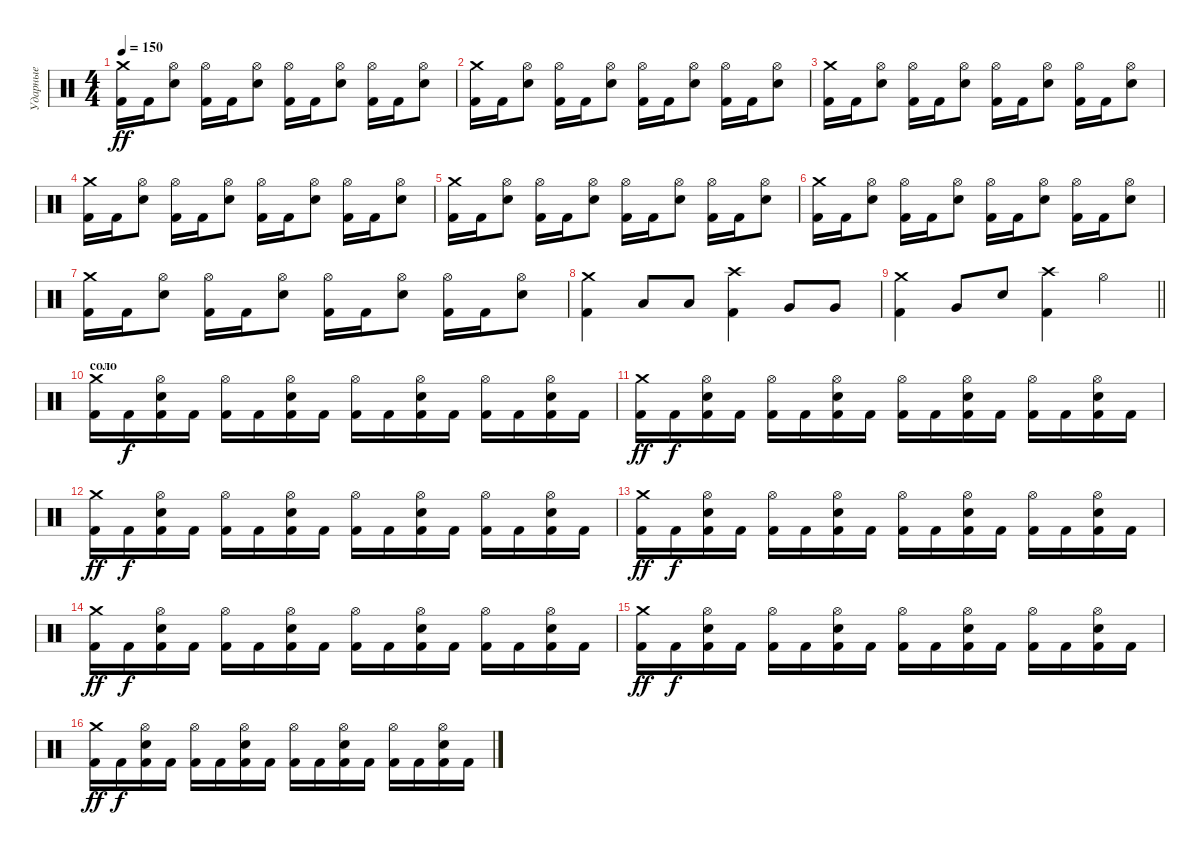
\track ("Ударные" "Ударные") {instrument percussion}
\staff {score}
\articulation defaults
\ts (4 4)
\tempo 150
\clef neutral
\ks c
("Crash medium (hit)" "Kick (hit) 2").16{dy ff} "Kick (hit) 2".16 ("Hi-Hat (open)" "Snare (hit) 2").8 ("Hi-Hat (open)" "Kick (hit) 2").16 "Kick (hit) 2".16 ("Hi-Hat (open)" "Snare (hit) 2").8 ("Hi-Hat (open)" "Kick (hit) 2").16 "Kick (hit) 2".16 ("Hi-Hat (open)" "Snare (hit) 2").8 ("Hi-Hat (open)" "Kick (hit) 2").16 "Kick (hit) 2".16 ("Hi-Hat (open)" "Snare (hit) 2").8 |
("Crash medium (hit)" "Kick (hit) 2").16 "Kick (hit) 2".16 ("Hi-Hat (open)" "Snare (hit) 2").8 ("Hi-Hat (open)" "Kick (hit) 2").16 "Kick (hit) 2".16 ("Hi-Hat (open)" "Snare (hit) 2").8 ("Hi-Hat (open)" "Kick (hit) 2").16 "Kick (hit) 2".16 ("Hi-Hat (open)" "Snare (hit) 2").8 ("Hi-Hat (open)" "Kick (hit) 2").16 "Kick (hit) 2".16 ("Hi-Hat (open)" "Snare (hit) 2").8 |
("Crash medium (hit)" "Kick (hit) 2").16 "Kick (hit) 2".16 ("Hi-Hat (open)" "Snare (hit) 2").8 ("Hi-Hat (open)" "Kick (hit) 2").16 "Kick (hit) 2".16 ("Hi-Hat (open)" "Snare (hit) 2").8 ("Hi-Hat (open)" "Kick (hit) 2").16 "Kick (hit) 2".16 ("Hi-Hat (open)" "Snare (hit) 2").8 ("Hi-Hat (open)" "Kick (hit) 2").16 "Kick (hit) 2".16 ("Hi-Hat (open)" "Snare (hit) 2").8 |
("Crash medium (hit)" "Kick (hit) 2").16 "Kick (hit) 2".16 ("Hi-Hat (open)" "Snare (hit) 2").8 ("Hi-Hat (open)" "Kick (hit) 2").16 "Kick (hit) 2".16 ("Hi-Hat (open)" "Snare (hit) 2").8 ("Hi-Hat (open)" "Kick (hit) 2").16 "Kick (hit) 2".16 ("Hi-Hat (open)" "Snare (hit) 2").8 ("Hi-Hat (open)" "Kick (hit) 2").16 "Kick (hit) 2".16 ("Hi-Hat (open)" "Snare (hit) 2").8 |
("Crash medium (hit)" "Kick (hit) 2").16 "Kick (hit) 2".16 ("Hi-Hat (open)" "Snare (hit) 2").8 ("Hi-Hat (open)" "Kick (hit) 2").16 "Kick (hit) 2".16 ("Hi-Hat (open)" "Snare (hit) 2").8 ("Hi-Hat (open)" "Kick (hit) 2").16 "Kick (hit) 2".16 ("Hi-Hat (open)" "Snare (hit) 2").8 ("Hi-Hat (open)" "Kick (hit) 2").16 "Kick (hit) 2".16 ("Hi-Hat (open)" "Snare (hit) 2").8 |
("Crash medium (hit)" "Kick (hit) 2").16 "Kick (hit) 2".16 ("Hi-Hat (open)" "Snare (hit) 2").8 ("Hi-Hat (open)" "Kick (hit) 2").16 "Kick (hit) 2".16 ("Hi-Hat (open)" "Snare (hit) 2").8 ("Hi-Hat (open)" "Kick (hit) 2").16 "Kick (hit) 2".16 ("Hi-Hat (open)" "Snare (hit) 2").8 ("Hi-Hat (open)" "Kick (hit) 2").16 "Kick (hit) 2".16 ("Hi-Hat (open)" "Snare (hit) 2").8 |
("Crash medium (hit)" "Kick (hit) 2").16 "Kick (hit) 2".16 ("Hi-Hat (open)" "Snare (hit) 2").8 ("Hi-Hat (open)" "Kick (hit) 2").16 "Kick (hit) 2".16 ("Hi-Hat (open)" "Snare (hit) 2").8 ("Hi-Hat (open)" "Kick (hit) 2").16 "Kick (hit) 2".16 ("Hi-Hat (open)" "Snare (hit) 2").8 ("Hi-Hat (open)" "Kick (hit) 2").16 "Kick (hit) 2".16 ("Hi-Hat (open)" "Snare (hit) 2").8 |
("Crash medium (hit)" "Kick (hit) 2").4 "Low Tom (hit)".8 "Low Tom (hit)".8 ("Crash high (hit)" "Kick (hit) 2").4 "Very Low Tom (hit)".8 "Very Low Tom (hit)".8 |
\barLineRight lightlight
("Kick (hit) 2" "Crash medium (hit)").4 "Very Low Tom (hit)".8 "Snare (hit) 2".8 ("Kick (hit) 2" "Crash high (hit)").4 "Hi-Hat (open)".4 |
\section ("" "соло")
("Crash medium (hit)" "Kick (hit) 2").16 "Kick (hit) 2".16{dy f} ("Kick (hit) 2" "Hi-Hat (open)" "Snare (hit) 2").16 "Kick (hit) 2".16 ("Kick (hit) 2" "Hi-Hat (open)").16 "Kick (hit) 2".16 ("Kick (hit) 2" "Hi-Hat (open)" "Snare (hit) 2").16 "Kick (hit) 2".16 ("Kick (hit) 2" "Hi-Hat (open)").16 "Kick (hit) 2".16 ("Kick (hit) 2" "Hi-Hat (open)" "Snare (hit) 2").16 "Kick (hit) 2".16 ("Kick (hit) 2" "Hi-Hat (open)").16 "Kick (hit) 2".16 ("Kick (hit) 2" "Hi-Hat (open)" "Snare (hit) 2").16 "Kick (hit) 2".16 |
("Crash medium (hit)" "Kick (hit) 2").16{dy ff} "Kick (hit) 2".16{dy f} ("Kick (hit) 2" "Hi-Hat (open)" "Snare (hit) 2").16 "Kick (hit) 2".16 ("Kick (hit) 2" "Hi-Hat (open)").16 "Kick (hit) 2".16 ("Kick (hit) 2" "Hi-Hat (open)" "Snare (hit) 2").16 "Kick (hit) 2".16 ("Kick (hit) 2" "Hi-Hat (open)").16 "Kick (hit) 2".16 ("Kick (hit) 2" "Hi-Hat (open)" "Snare (hit) 2").16 "Kick (hit) 2".16 ("Kick (hit) 2" "Hi-Hat (open)").16 "Kick (hit) 2".16 ("Kick (hit) 2" "Hi-Hat (open)" "Snare (hit) 2").16 "Kick (hit) 2".16 |
("Crash medium (hit)" "Kick (hit) 2").16{dy ff} "Kick (hit) 2".16{dy f} ("Kick (hit) 2" "Hi-Hat (open)" "Snare (hit) 2").16 "Kick (hit) 2".16 ("Kick (hit) 2" "Hi-Hat (open)").16 "Kick (hit) 2".16 ("Kick (hit) 2" "Hi-Hat (open)" "Snare (hit) 2").16 "Kick (hit) 2".16 ("Kick (hit) 2" "Hi-Hat (open)").16 "Kick (hit) 2".16 ("Kick (hit) 2" "Hi-Hat (open)" "Snare (hit) 2").16 "Kick (hit) 2".16 ("Kick (hit) 2" "Hi-Hat (open)").16 "Kick (hit) 2".16 ("Kick (hit) 2" "Hi-Hat (open)" "Snare (hit) 2").16 "Kick (hit) 2".16 |
("Crash medium (hit)" "Kick (hit) 2").16{dy ff} "Kick (hit) 2".16{dy f} ("Kick (hit) 2" "Hi-Hat (open)" "Snare (hit) 2").16 "Kick (hit) 2".16 ("Kick (hit) 2" "Hi-Hat (open)").16 "Kick (hit) 2".16 ("Kick (hit) 2" "Hi-Hat (open)" "Snare (hit) 2").16 "Kick (hit) 2".16 ("Kick (hit) 2" "Hi-Hat (open)").16 "Kick (hit) 2".16 ("Kick (hit) 2" "Hi-Hat (open)" "Snare (hit) 2").16 "Kick (hit) 2".16 ("Kick (hit) 2" "Hi-Hat (open)").16 "Kick (hit) 2".16 ("Kick (hit) 2" "Hi-Hat (open)" "Snare (hit) 2").16 "Kick (hit) 2".16 |
("Crash medium (hit)" "Kick (hit) 2").16{dy ff} "Kick (hit) 2".16{dy f} ("Kick (hit) 2" "Hi-Hat (open)" "Snare (hit) 2").16 "Kick (hit) 2".16 ("Kick (hit) 2" "Hi-Hat (open)").16 "Kick (hit) 2".16 ("Kick (hit) 2" "Hi-Hat (open)" "Snare (hit) 2").16 "Kick (hit) 2".16 ("Kick (hit) 2" "Hi-Hat (open)").16 "Kick (hit) 2".16 ("Kick (hit) 2" "Hi-Hat (open)" "Snare (hit) 2").16 "Kick (hit) 2".16 ("Kick (hit) 2" "Hi-Hat (open)").16 "Kick (hit) 2".16 ("Kick (hit) 2" "Hi-Hat (open)" "Snare (hit) 2").16 "Kick (hit) 2".16 |
("Crash medium (hit)" "Kick (hit) 2").16{dy ff} "Kick (hit) 2".16{dy f} ("Kick (hit) 2" "Hi-Hat (open)" "Snare (hit) 2").16 "Kick (hit) 2".16 ("Kick (hit) 2" "Hi-Hat (open)").16 "Kick (hit) 2".16 ("Kick (hit) 2" "Hi-Hat (open)" "Snare (hit) 2").16 "Kick (hit) 2".16 ("Kick (hit) 2" "Hi-Hat (open)").16 "Kick (hit) 2".16 ("Kick (hit) 2" "Hi-Hat (open)" "Snare (hit) 2").16 "Kick (hit) 2".16 ("Kick (hit) 2" "Hi-Hat (open)").16 "Kick (hit) 2".16 ("Kick (hit) 2" "Hi-Hat (open)" "Snare (hit) 2").16 "Kick (hit) 2".16 |
("Crash medium (hit)" "Kick (hit) 2").16{dy ff} "Kick (hit) 2".16{dy f} ("Kick (hit) 2" "Hi-Hat (open)" "Snare (hit) 2").16 "Kick (hit) 2".16 ("Kick (hit) 2" "Hi-Hat (open)").16 "Kick (hit) 2".16 ("Kick (hit) 2" "Hi-Hat (open)" "Snare (hit) 2").16 "Kick (hit) 2".16 ("Kick (hit) 2" "Hi-Hat (open)").16 "Kick (hit) 2".16 ("Kick (hit) 2" "Hi-Hat (open)" "Snare (hit) 2").16 "Kick (hit) 2".16 ("Kick (hit) 2" "Hi-Hat (open)").16 "Kick (hit) 2".16 ("Kick (hit) 2" "Hi-Hat (open)" "Snare (hit) 2").16 "Kick (hit) 2".16
